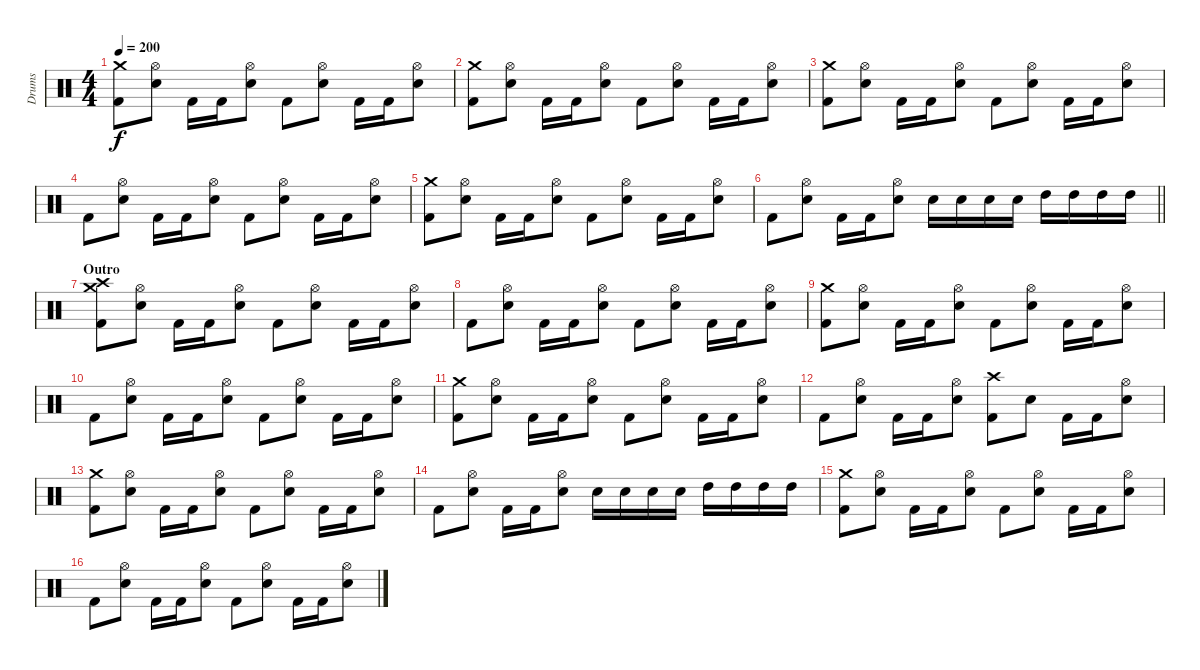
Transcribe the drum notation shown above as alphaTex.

\track ("Drums" "Drums") {instrument percussion}
\staff {score}
\articulation defaults
\ts (4 4)
\tempo 200
\clef neutral
\ks c
("Crash medium (hit)" "Kick (hit) 2").8{dy f} ("Hi-Hat (open)" "Electric Snare (hit)").8 "Kick (hit) 2".16 "Kick (hit) 2".16 ("Hi-Hat (open)" "Electric Snare (hit)").8 "Kick (hit) 2".8 ("Hi-Hat (open)" "Electric Snare (hit)").8 "Kick (hit) 2".16 "Kick (hit) 2".16 ("Hi-Hat (open)" "Electric Snare (hit)").8 |
("Crash medium (hit)" "Kick (hit) 2").8 ("Hi-Hat (open)" "Electric Snare (hit)").8 "Kick (hit) 2".16 "Kick (hit) 2".16 ("Hi-Hat (open)" "Electric Snare (hit)").8 "Kick (hit) 2".8 ("Hi-Hat (open)" "Electric Snare (hit)").8 "Kick (hit) 2".16 "Kick (hit) 2".16 ("Hi-Hat (open)" "Electric Snare (hit)").8 |
("Crash medium (hit)" "Kick (hit) 2").8 ("Hi-Hat (open)" "Electric Snare (hit)").8 "Kick (hit) 2".16 "Kick (hit) 2".16 ("Hi-Hat (open)" "Electric Snare (hit)").8 "Kick (hit) 2".8 ("Hi-Hat (open)" "Electric Snare (hit)").8 "Kick (hit) 2".16 "Kick (hit) 2".16 ("Hi-Hat (open)" "Electric Snare (hit)").8 |
"Kick (hit) 2".8 ("Hi-Hat (open)" "Electric Snare (hit)").8 "Kick (hit) 2".16 "Kick (hit) 2".16 ("Hi-Hat (open)" "Electric Snare (hit)").8 "Kick (hit) 2".8 ("Hi-Hat (open)" "Electric Snare (hit)").8 "Kick (hit) 2".16 "Kick (hit) 2".16 ("Hi-Hat (open)" "Electric Snare (hit)").8 |
("Crash medium (hit)" "Kick (hit) 2").8 ("Hi-Hat (open)" "Electric Snare (hit)").8 "Kick (hit) 2".16 "Kick (hit) 2".16 ("Hi-Hat (open)" "Electric Snare (hit)").8 "Kick (hit) 2".8 ("Hi-Hat (open)" "Electric Snare (hit)").8 "Kick (hit) 2".16 "Kick (hit) 2".16 ("Hi-Hat (open)" "Electric Snare (hit)").8 |
\barLineRight lightlight "Kick (hit) 2".8
("Hi-Hat (open)" "Electric Snare (hit)").8 "Kick (hit) 2".16 "Kick (hit) 2".16 ("Hi-Hat (open)" "Electric Snare (hit)").8 "Electric Snare (hit)".16 "Electric Snare (hit)".16 "Electric Snare (hit)".16 "Electric Snare (hit)".16 "High Tom (hit)".16 "High Tom (hit)".16 "High Tom (hit)".16 "High Tom (hit)".16 |
\section ("" "Outro")
("Crash medium (hit)" "Crash high (hit)" "Kick (hit) 2").8 ("Hi-Hat (open)" "Electric Snare (hit)").8 "Kick (hit) 2".16 "Kick (hit) 2".16 ("Hi-Hat (open)" "Electric Snare (hit)").8 "Kick (hit) 2".8 ("Hi-Hat (open)" "Electric Snare (hit)").8 "Kick (hit) 2".16 "Kick (hit) 2".16 ("Hi-Hat (open)" "Electric Snare (hit)").8 |
"Kick (hit) 2".8 ("Hi-Hat (open)" "Electric Snare (hit)").8 "Kick (hit) 2".16 "Kick (hit) 2".16 ("Hi-Hat (open)" "Electric Snare (hit)").8 "Kick (hit) 2".8 ("Hi-Hat (open)" "Electric Snare (hit)").8 "Kick (hit) 2".16 "Kick (hit) 2".16 ("Hi-Hat (open)" "Electric Snare (hit)").8 |
("Crash medium (hit)" "Kick (hit) 2").8 ("Hi-Hat (open)" "Electric Snare (hit)").8 "Kick (hit) 2".16 "Kick (hit) 2".16 ("Hi-Hat (open)" "Electric Snare (hit)").8 "Kick (hit) 2".8 ("Hi-Hat (open)" "Electric Snare (hit)").8 "Kick (hit) 2".16 "Kick (hit) 2".16 ("Hi-Hat (open)" "Electric Snare (hit)").8 |
"Kick (hit) 2".8 ("Hi-Hat (open)" "Electric Snare (hit)").8 "Kick (hit) 2".16 "Kick (hit) 2".16 ("Hi-Hat (open)" "Electric Snare (hit)").8 "Kick (hit) 2".8 ("Hi-Hat (open)" "Electric Snare (hit)").8 "Kick (hit) 2".16 "Kick (hit) 2".16 ("Hi-Hat (open)" "Electric Snare (hit)").8 |
("Crash medium (hit)" "Kick (hit) 2").8 ("Hi-Hat (open)" "Electric Snare (hit)").8 "Kick (hit) 2".16 "Kick (hit) 2".16 ("Hi-Hat (open)" "Electric Snare (hit)").8 "Kick (hit) 2".8 ("Hi-Hat (open)" "Electric Snare (hit)").8 "Kick (hit) 2".16 "Kick (hit) 2".16 ("Hi-Hat (open)" "Electric Snare (hit)").8 |
"Kick (hit) 2".8 ("Hi-Hat (open)" "Electric Snare (hit)").8 "Kick (hit) 2".16 "Kick (hit) 2".16 ("Hi-Hat (open)" "Electric Snare (hit)").8 ("Crash high (hit)" "Kick (hit) 2").8 "Electric Snare (hit)".8 "Kick (hit) 2".16 "Kick (hit) 2".16 ("Hi-Hat (open)" "Electric Snare (hit)").8 |
("Crash medium (hit)" "Kick (hit) 2").8 ("Hi-Hat (open)" "Electric Snare (hit)").8 "Kick (hit) 2".16 "Kick (hit) 2".16 ("Hi-Hat (open)" "Electric Snare (hit)").8 "Kick (hit) 2".8 ("Hi-Hat (open)" "Electric Snare (hit)").8 "Kick (hit) 2".16 "Kick (hit) 2".16 ("Hi-Hat (open)" "Electric Snare (hit)").8 |
"Kick (hit) 2".8 ("Hi-Hat (open)" "Electric Snare (hit)").8 "Kick (hit) 2".16 "Kick (hit) 2".16 ("Hi-Hat (open)" "Electric Snare (hit)").8 "Electric Snare (hit)".16 "Electric Snare (hit)".16 "Electric Snare (hit)".16 "Electric Snare (hit)".16 "High Tom (hit)".16 "High Tom (hit)".16 "High Tom (hit)".16 "High Tom (hit)".16 |
("Crash medium (hit)" "Kick (hit) 2").8 ("Hi-Hat (open)" "Electric Snare (hit)").8 "Kick (hit) 2".16 "Kick (hit) 2".16 ("Hi-Hat (open)" "Electric Snare (hit)").8 "Kick (hit) 2".8 ("Hi-Hat (open)" "Electric Snare (hit)").8 "Kick (hit) 2".16 "Kick (hit) 2".16 ("Hi-Hat (open)" "Electric Snare (hit)").8 |
"Kick (hit) 2".8 ("Hi-Hat (open)" "Electric Snare (hit)").8 "Kick (hit) 2".16 "Kick (hit) 2".16 ("Hi-Hat (open)" "Electric Snare (hit)").8 "Kick (hit) 2".8 ("Hi-Hat (open)" "Electric Snare (hit)").8 "Kick (hit) 2".16 "Kick (hit) 2".16 ("Hi-Hat (open)" "Electric Snare (hit)").8
